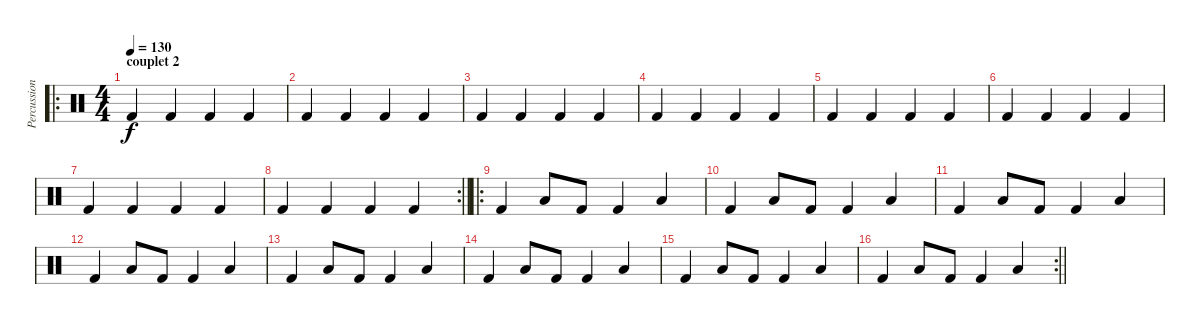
\track ("Percussions" "Percussion") {instrument percussion}
\staff {score}
\articulation defaults
\ro
\ts (4 4)
\section ("" "couplet 2")
\tempo 130
\clef neutral
\ks c "Kick (hit) 2".4{dy f} "Kick (hit) 2".4 "Kick (hit) 2".4 "Kick (hit) 2".4
|
"Kick (hit) 2".4 "Kick (hit) 2".4 "Kick (hit) 2".4 "Kick (hit) 2".4 |
"Kick (hit) 2".4 "Kick (hit) 2".4 "Kick (hit) 2".4 "Kick (hit) 2".4 |
"Kick (hit) 2".4 "Kick (hit) 2".4 "Kick (hit) 2".4 "Kick (hit) 2".4 |
"Kick (hit) 2".4 "Kick (hit) 2".4 "Kick (hit) 2".4 "Kick (hit) 2".4 |
"Kick (hit) 2".4 "Kick (hit) 2".4 "Kick (hit) 2".4 "Kick (hit) 2".4 |
"Kick (hit) 2".4 "Kick (hit) 2".4 "Kick (hit) 2".4 "Kick (hit) 2".4 |
\rc 2
\barLineRight lightlight "Kick (hit) 2".4 "Kick (hit) 2".4 "Kick (hit) 2".4 "Kick (hit) 2".4
|
\ro "Kick (hit) 2".4 "Low Floor Tom (hit)".8 "Kick (hit) 2".8 "Kick (hit) 2".4 "Low Floor Tom (hit)".4
|
"Kick (hit) 2".4 "Low Floor Tom (hit)".8 "Kick (hit) 2".8 "Kick (hit) 2".4 "Low Floor Tom (hit)".4 |
"Kick (hit) 2".4 "Low Floor Tom (hit)".8 "Kick (hit) 2".8 "Kick (hit) 2".4 "Low Floor Tom (hit)".4 |
"Kick (hit) 2".4 "Low Floor Tom (hit)".8 "Kick (hit) 2".8 "Kick (hit) 2".4 "Low Floor Tom (hit)".4 |
"Kick (hit) 2".4 "Low Floor Tom (hit)".8 "Kick (hit) 2".8 "Kick (hit) 2".4 "Low Floor Tom (hit)".4 |
"Kick (hit) 2".4 "Low Floor Tom (hit)".8 "Kick (hit) 2".8 "Kick (hit) 2".4 "Low Floor Tom (hit)".4 |
"Kick (hit) 2".4 "Low Floor Tom (hit)".8 "Kick (hit) 2".8 "Kick (hit) 2".4 "Low Floor Tom (hit)".4 |
\rc 2
\barLineRight lightlight "Kick (hit) 2".4 "Low Floor Tom (hit)".8 "Kick (hit) 2".8 "Kick (hit) 2".4 "Low Floor Tom (hit)".4
